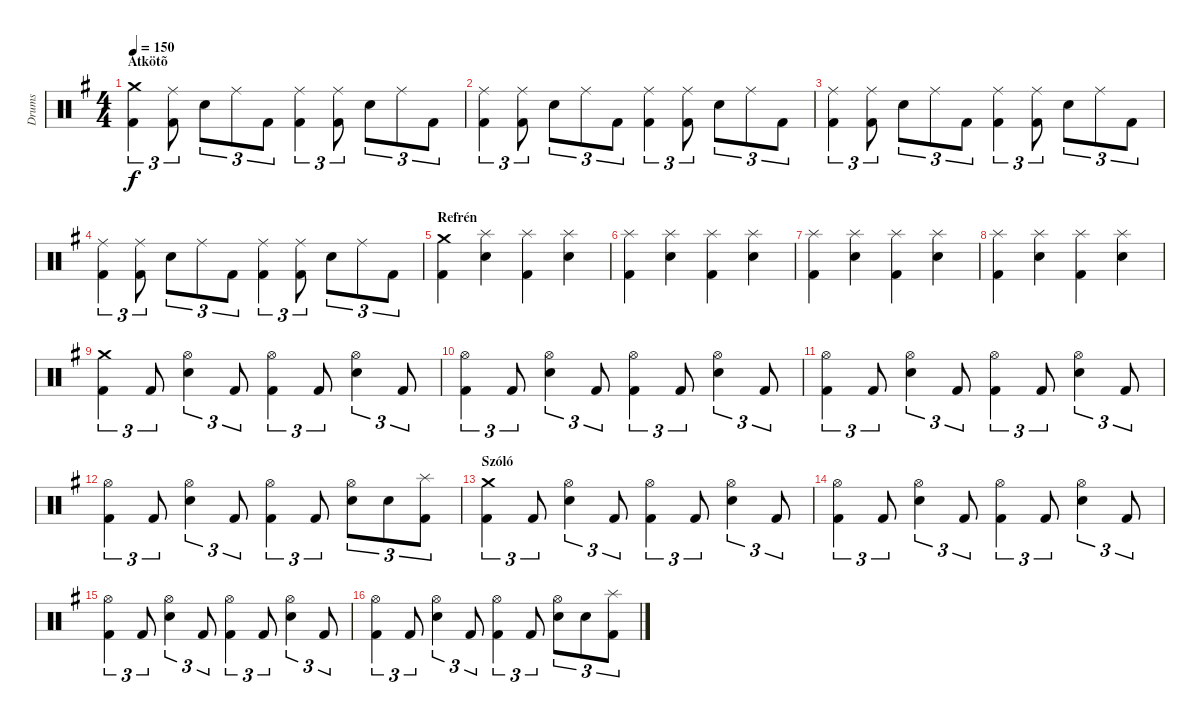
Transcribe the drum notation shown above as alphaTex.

\track ("Drums" "Drums") {instrument percussion}
\staff {score}
\articulation defaults
\ts (4 4)
\section ("" "Átkötõ")
\tempo 150
\clef neutral
\ks eminor
("Crash medium (hit)" "Kick (hit) 2").4{tu (3 2) dy f} ("Ride (middle)" "Kick (hit) 2").8{tu (3 2)} "Snare (hit) 2".8{tu (3 2)} "Ride (middle)".8{tu (3 2)} "Kick (hit) 2".8{tu (3 2)} ("Ride (middle)" "Kick (hit) 2").4{tu (3 2)} ("Ride (middle)" "Kick (hit) 2").8{tu (3 2)} "Snare (hit) 2".8{tu (3 2)} "Ride (middle)".8{tu (3 2)} "Kick (hit) 2".8{tu (3 2)} |
("Ride (middle)" "Kick (hit) 2").4{tu (3 2)} ("Ride (middle)" "Kick (hit) 2").8{tu (3 2)} "Snare (hit) 2".8{tu (3 2)} "Ride (middle)".8{tu (3 2)} "Kick (hit) 2".8{tu (3 2)} ("Ride (middle)" "Kick (hit) 2").4{tu (3 2)} ("Ride (middle)" "Kick (hit) 2").8{tu (3 2)} "Snare (hit) 2".8{tu (3 2)} "Ride (middle)".8{tu (3 2)} "Kick (hit) 2".8{tu (3 2)} |
("Ride (middle)" "Kick (hit) 2").4{tu (3 2)} ("Ride (middle)" "Kick (hit) 2").8{tu (3 2)} "Snare (hit) 2".8{tu (3 2)} "Ride (middle)".8{tu (3 2)} "Kick (hit) 2".8{tu (3 2)} ("Ride (middle)" "Kick (hit) 2").4{tu (3 2)} ("Ride (middle)" "Kick (hit) 2").8{tu (3 2)} "Snare (hit) 2".8{tu (3 2)} "Ride (middle)".8{tu (3 2)} "Kick (hit) 2".8{tu (3 2)} |
("Ride (middle)" "Kick (hit) 2").4{tu (3 2)} ("Ride (middle)" "Kick (hit) 2").8{tu (3 2)} "Snare (hit) 2".8{tu (3 2)} "Ride (middle)".8{tu (3 2)} "Kick (hit) 2".8{tu (3 2)} ("Ride (middle)" "Kick (hit) 2").4{tu (3 2)} ("Ride (middle)" "Kick (hit) 2").8{tu (3 2)} "Snare (hit) 2".8{tu (3 2)} "Ride (middle)".8{tu (3 2)} "Kick (hit) 2".8{tu (3 2)} |
\section ("" "Refrén")
("Crash medium (hit)" "Kick (hit) 2").4 ("Splash (hit)" "Snare (hit) 2").4 ("Splash (hit)" "Kick (hit) 2").4 ("Splash (hit)" "Snare (hit) 2").4 |
("Splash (hit)" "Kick (hit) 2").4 ("Splash (hit)" "Snare (hit) 2").4 ("Splash (hit)" "Kick (hit) 2").4 ("Splash (hit)" "Snare (hit) 2").4 |
("Splash (hit)" "Kick (hit) 2").4 ("Splash (hit)" "Snare (hit) 2").4 ("Splash (hit)" "Kick (hit) 2").4 ("Splash (hit)" "Snare (hit) 2").4 |
("Splash (hit)" "Kick (hit) 2").4 ("Splash (hit)" "Snare (hit) 2").4 ("Splash (hit)" "Kick (hit) 2").4 ("Splash (hit)" "Snare (hit) 2").4 |
("Crash medium (hit)" "Kick (hit) 2").4{tu (3 2)} "Kick (hit) 2".8{tu (3 2)} ("Hi-Hat (open)" "Snare (hit) 2").4{tu (3 2)} "Kick (hit) 2".8{tu (3 2)} ("Hi-Hat (open)" "Kick (hit) 2").4{tu (3 2)} "Kick (hit) 2".8{tu (3 2)} ("Hi-Hat (open)" "Snare (hit) 2").4{tu (3 2)} "Kick (hit) 2".8{tu (3 2)} |
("Hi-Hat (open)" "Kick (hit) 2").4{tu (3 2)} "Kick (hit) 2".8{tu (3 2)} ("Hi-Hat (open)" "Snare (hit) 2").4{tu (3 2)} "Kick (hit) 2".8{tu (3 2)} ("Hi-Hat (open)" "Kick (hit) 2").4{tu (3 2)} "Kick (hit) 2".8{tu (3 2)} ("Hi-Hat (open)" "Snare (hit) 2").4{tu (3 2)} "Kick (hit) 2".8{tu (3 2)} |
("Hi-Hat (open)" "Kick (hit) 2").4{tu (3 2)} "Kick (hit) 2".8{tu (3 2)} ("Hi-Hat (open)" "Snare (hit) 2").4{tu (3 2)} "Kick (hit) 2".8{tu (3 2)} ("Hi-Hat (open)" "Kick (hit) 2").4{tu (3 2)} "Kick (hit) 2".8{tu (3 2)} ("Hi-Hat (open)" "Snare (hit) 2").4{tu (3 2)} "Kick (hit) 2".8{tu (3 2)} |
("Hi-Hat (open)" "Kick (hit) 2").4{tu (3 2)} "Kick (hit) 2".8{tu (3 2)} ("Hi-Hat (open)" "Snare (hit) 2").4{tu (3 2)} "Kick (hit) 2".8{tu (3 2)} ("Hi-Hat (open)" "Kick (hit) 2").4{tu (3 2)} "Kick (hit) 2".8{tu (3 2)} ("Hi-Hat (open)" "Snare (hit) 2").8{tu (3 2)} "Snare (hit) 2".8{tu (3 2)} ("Splash (hit)" "Kick (hit) 2").8{tu (3 2)} |
\section ("" "Szóló")
("Crash medium (hit)" "Kick (hit) 2").4{tu (3 2)} "Kick (hit) 2".8{tu (3 2)} ("Hi-Hat (open)" "Snare (hit) 2").4{tu (3 2)} "Kick (hit) 2".8{tu (3 2)} ("Hi-Hat (open)" "Kick (hit) 2").4{tu (3 2)} "Kick (hit) 2".8{tu (3 2)} ("Hi-Hat (open)" "Snare (hit) 2").4{tu (3 2)} "Kick (hit) 2".8{tu (3 2)} |
("Hi-Hat (open)" "Kick (hit) 2").4{tu (3 2)} "Kick (hit) 2".8{tu (3 2)} ("Hi-Hat (open)" "Snare (hit) 2").4{tu (3 2)} "Kick (hit) 2".8{tu (3 2)} ("Hi-Hat (open)" "Kick (hit) 2").4{tu (3 2)} "Kick (hit) 2".8{tu (3 2)} ("Hi-Hat (open)" "Snare (hit) 2").4{tu (3 2)} "Kick (hit) 2".8{tu (3 2)} |
("Hi-Hat (open)" "Kick (hit) 2").4{tu (3 2)} "Kick (hit) 2".8{tu (3 2)} ("Hi-Hat (open)" "Snare (hit) 2").4{tu (3 2)} "Kick (hit) 2".8{tu (3 2)} ("Hi-Hat (open)" "Kick (hit) 2").4{tu (3 2)} "Kick (hit) 2".8{tu (3 2)} ("Hi-Hat (open)" "Snare (hit) 2").4{tu (3 2)} "Kick (hit) 2".8{tu (3 2)} |
("Hi-Hat (open)" "Kick (hit) 2").4{tu (3 2)} "Kick (hit) 2".8{tu (3 2)} ("Hi-Hat (open)" "Snare (hit) 2").4{tu (3 2)} "Kick (hit) 2".8{tu (3 2)} ("Hi-Hat (open)" "Kick (hit) 2").4{tu (3 2)} "Kick (hit) 2".8{tu (3 2)} ("Hi-Hat (open)" "Snare (hit) 2").8{tu (3 2)} "Snare (hit) 2".8{tu (3 2)} ("Splash (hit)" "Kick (hit) 2").8{tu (3 2)}
